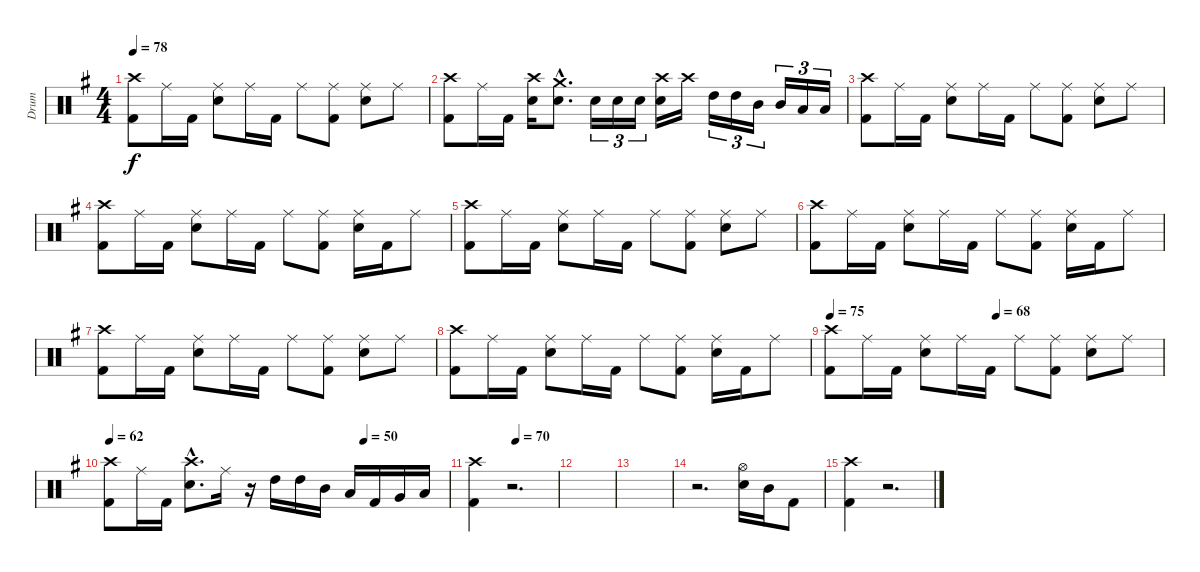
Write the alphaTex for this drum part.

\track ("Drum" "Drum") {instrument percussion}
\staff {score}
\articulation defaults
\ts (4 4)
\tempo 78
\clef neutral
\ks g
("Crash high (hit)" "Kick (hit) 2").8{dy f} "Ride (middle)".16 "Kick (hit) 2".16 ("Ride (middle)" "Snare (hit) 2").8 "Ride (middle)".16 "Kick (hit) 2".16 "Ride (middle)".8 ("Ride (middle)" "Kick (hit) 2").8 ("Ride (middle)" "Snare (hit) 2").8 "Ride (middle)".8 |
("Crash high (hit)" "Kick (hit) 2").8 "Ride (middle)".16 "Kick (hit) 2".16 ("Crash high (hit)" "Snare (hit) 2").16 ("Crash medium (hit)"{hac} "Snare (hit) 2"{hac}).8{d} "Snare (hit) 2".16{tu (3 2)} "Snare (hit) 2".16{tu (3 2)} "Snare (hit) 2".16{tu (3 2)} ("Crash high (hit)" "Snare (hit) 2").16 "Crash high (hit)".16 "High Tom (hit)".16{tu (3 2)} "High Tom (hit)".16{tu (3 2)} "Mid Tom (hit)".16{tu (3 2)} "Mid Tom (hit)".16{tu (3 2)} "Low Tom (hit)".16{tu (3 2)} "Low Tom (hit)".16{tu (3 2)} |
("Crash high (hit)" "Kick (hit) 2").8 "Ride (middle)".16 "Kick (hit) 2".16 ("Ride (middle)" "Snare (hit) 2").8 "Ride (middle)".16 "Kick (hit) 2".16 "Ride (middle)".8 ("Ride (middle)" "Kick (hit) 2").8 ("Ride (middle)" "Snare (hit) 2").8 "Ride (middle)".8 |
("Crash high (hit)" "Kick (hit) 2").8 "Ride (middle)".16 "Kick (hit) 2".16 ("Ride (middle)" "Snare (hit) 2").8 "Ride (middle)".16 "Kick (hit) 2".16 "Ride (middle)".8 ("Ride (middle)" "Kick (hit) 2").8 ("Ride (middle)" "Snare (hit) 2").16 "Kick (hit) 2".16 "Ride (middle)".8 |
("Crash high (hit)" "Kick (hit) 2").8 "Ride (middle)".16 "Kick (hit) 2".16 ("Ride (middle)" "Snare (hit) 2").8 "Ride (middle)".16 "Kick (hit) 2".16 "Ride (middle)".8 ("Ride (middle)" "Kick (hit) 2").8 ("Ride (middle)" "Snare (hit) 2").8 "Ride (middle)".8 |
("Crash high (hit)" "Kick (hit) 2").8 "Ride (middle)".16 "Kick (hit) 2".16 ("Ride (middle)" "Snare (hit) 2").8 "Ride (middle)".16 "Kick (hit) 2".16 "Ride (middle)".8 ("Ride (middle)" "Kick (hit) 2").8 ("Ride (middle)" "Snare (hit) 2").16 "Kick (hit) 2".16 "Ride (middle)".8 |
("Crash high (hit)" "Kick (hit) 2").8 "Ride (middle)".16 "Kick (hit) 2".16 ("Ride (middle)" "Snare (hit) 2").8 "Ride (middle)".16 "Kick (hit) 2".16 "Ride (middle)".8 ("Ride (middle)" "Kick (hit) 2").8 ("Ride (middle)" "Snare (hit) 2").8 "Ride (middle)".8 |
("Crash high (hit)" "Kick (hit) 2").8 "Ride (middle)".16 "Kick (hit) 2".16 ("Ride (middle)" "Snare (hit) 2").8 "Ride (middle)".16 "Kick (hit) 2".16 "Ride (middle)".8 ("Ride (middle)" "Kick (hit) 2").8 ("Ride (middle)" "Snare (hit) 2").16 "Kick (hit) 2".16 "Ride (middle)".8 |
\tempo 75
\tempo (68 0.5)
("Crash high (hit)" "Kick (hit) 2").8 "Ride (middle)".16 "Kick (hit) 2".16 ("Ride (middle)" "Snare (hit) 2").8 "Ride (middle)".16 "Kick (hit) 2".16 "Ride (middle)".8 ("Ride (middle)" "Kick (hit) 2").8 ("Ride (middle)" "Snare (hit) 2").8 "Ride (middle)".8 |
\tempo 62
\tempo (50 0.75)
("Crash high (hit)" "Kick (hit) 2").8 "Ride (middle)".16 "Kick (hit) 2".16 ("Crash high (hit)"{hac} "Snare (hit) 2"{hac}).8{d} "Ride (middle)".16 r.16 "High Tom (hit)".16 "High Tom (hit)".16 "Mid Tom (hit)".16 "Low Tom (hit)".16 "Kick (hit) 2".16 "Very Low Tom (hit)".16 "Low Tom (hit)".16 |
\tempo (70 0.5)
("Crash high (hit)" "Kick (hit) 2").4 r.2{d} |
|
|
r.2{d} ("Hi-Hat (open)" "Snare (hit) 2").16 "Mid Tom (hit)".16 "Kick (hit) 2".8 |
("Crash high (hit)" "Kick (hit) 2").4 r.2{d}
